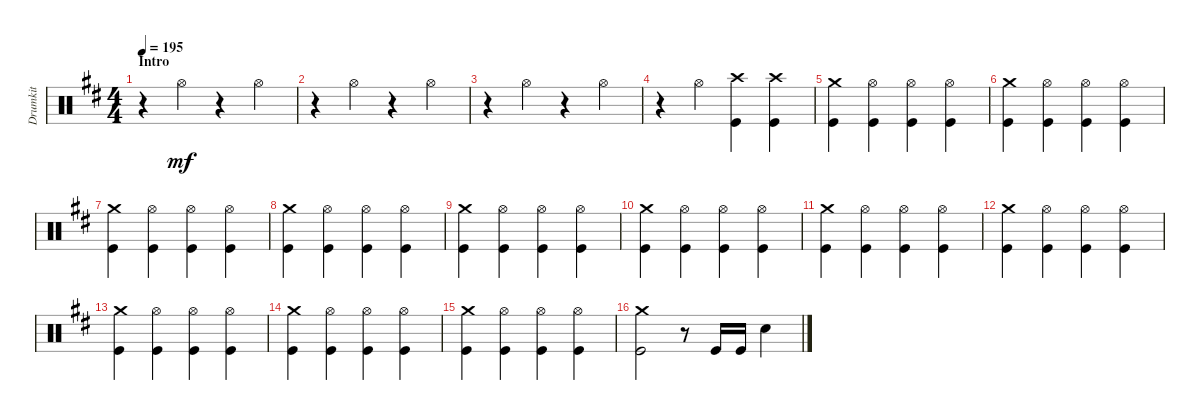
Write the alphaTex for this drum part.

\track ("Drumkit" "Drumkit") {instrument percussion}
\staff {score}
\articulation defaults
\ts (4 4)
\section ("" "Intro")
\tempo 195
\clef neutral
\ks bminor
r.4{dy mf} "Hi-Hat (open)".4 r.4 "Hi-Hat (open)".4 |
r.4 "Hi-Hat (open)".4 r.4 "Hi-Hat (open)".4 |
r.4 "Hi-Hat (open)".4 r.4 "Hi-Hat (open)".4 |
r.4 "Hi-Hat (open)".4 ("Kick (hit)" "Crash high (hit)").4 ("Kick (hit)" "Crash high (hit)").4 |
("Crash medium (hit)" "Kick (hit)").4 ("Kick (hit)" "Hi-Hat (open)").4 ("Kick (hit)" "Hi-Hat (open)").4 ("Kick (hit)" "Hi-Hat (open)").4 |
("Crash medium (hit)" "Kick (hit)").4 ("Kick (hit)" "Hi-Hat (open)").4 ("Kick (hit)" "Hi-Hat (open)").4 ("Kick (hit)" "Hi-Hat (open)").4 |
("Crash medium (hit)" "Kick (hit)").4 ("Kick (hit)" "Hi-Hat (open)").4 ("Kick (hit)" "Hi-Hat (open)").4 ("Kick (hit)" "Hi-Hat (open)").4 |
("Crash medium (hit)" "Kick (hit)").4 ("Kick (hit)" "Hi-Hat (open)").4 ("Kick (hit)" "Hi-Hat (open)").4 ("Kick (hit)" "Hi-Hat (open)").4 |
("Crash medium (hit)" "Kick (hit)").4 ("Kick (hit)" "Hi-Hat (open)").4 ("Kick (hit)" "Hi-Hat (open)").4 ("Kick (hit)" "Hi-Hat (open)").4 |
("Crash medium (hit)" "Kick (hit)").4 ("Kick (hit)" "Hi-Hat (open)").4 ("Kick (hit)" "Hi-Hat (open)").4 ("Kick (hit)" "Hi-Hat (open)").4 |
("Crash medium (hit)" "Kick (hit)").4 ("Kick (hit)" "Hi-Hat (open)").4 ("Kick (hit)" "Hi-Hat (open)").4 ("Kick (hit)" "Hi-Hat (open)").4 |
("Crash medium (hit)" "Kick (hit)").4 ("Kick (hit)" "Hi-Hat (open)").4 ("Kick (hit)" "Hi-Hat (open)").4 ("Kick (hit)" "Hi-Hat (open)").4 |
("Crash medium (hit)" "Kick (hit)").4 ("Kick (hit)" "Hi-Hat (open)").4 ("Kick (hit)" "Hi-Hat (open)").4 ("Kick (hit)" "Hi-Hat (open)").4 |
("Crash medium (hit)" "Kick (hit)").4 ("Kick (hit)" "Hi-Hat (open)").4 ("Kick (hit)" "Hi-Hat (open)").4 ("Kick (hit)" "Hi-Hat (open)").4 |
("Crash medium (hit)" "Kick (hit)").4 ("Kick (hit)" "Hi-Hat (open)").4 ("Kick (hit)" "Hi-Hat (open)").4 ("Kick (hit)" "Hi-Hat (open)").4 |
("Kick (hit)" "Crash medium (hit)").2 r.8 "Kick (hit)".16 "Kick (hit)".16 "Snare (hit) 2".4
